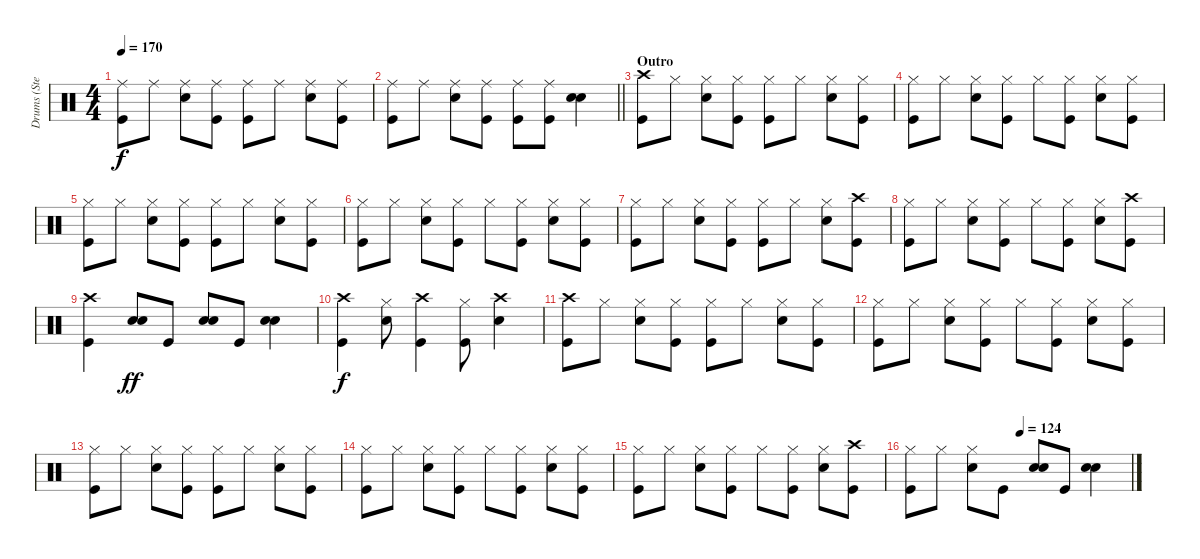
\track ("Drums (Steven)" "Drums (Ste") {instrument percussion}
\staff {score}
\articulation defaults
\ts (4 4)
\tempo 170
\clef neutral
\ks c
("Ride (middle)" "Kick (hit)").8{dy f} "Ride (middle)".8 ("Ride (middle)" "Snare (hit) 2").8 ("Ride (middle)" "Kick (hit)").8 ("Ride (middle)" "Kick (hit)").8 "Ride (middle)".8 ("Ride (middle)" "Snare (hit) 2").8 ("Ride (middle)" "Kick (hit)").8 |
\barLineRight lightlight
("Ride (middle)" "Kick (hit)").8 "Ride (middle)".8 ("Ride (middle)" "Snare (hit) 2").8 ("Ride (middle)" "Kick (hit)").8 ("Ride (middle)" "Kick (hit)").8 ("Ride (middle)" "Kick (hit)").8 ("Snare (hit) 2" "Snare (hit) 2").4 |
\section ("" "Outro")
("Crash high (hit)" "Kick (hit)").8 "Hi-Hat (closed)".8 ("Hi-Hat (closed)" "Snare (hit) 2").8 ("Hi-Hat (closed)" "Kick (hit)").8 ("Hi-Hat (closed)" "Kick (hit)").8 "Hi-Hat (closed)".8 ("Hi-Hat (closed)" "Snare (hit) 2").8 ("Hi-Hat (closed)" "Kick (hit)").8 |
("Hi-Hat (closed)" "Kick (hit)").8 "Hi-Hat (closed)".8 ("Hi-Hat (closed)" "Snare (hit) 2").8 ("Hi-Hat (closed)" "Kick (hit)").8 "Hi-Hat (closed)".8 ("Hi-Hat (closed)" "Kick (hit)").8 ("Hi-Hat (closed)" "Snare (hit) 2").8 ("Hi-Hat (closed)" "Kick (hit)").8 |
("Hi-Hat (closed)" "Kick (hit)").8 "Hi-Hat (closed)".8 ("Hi-Hat (closed)" "Snare (hit) 2").8 ("Hi-Hat (closed)" "Kick (hit)").8 ("Hi-Hat (closed)" "Kick (hit)").8 "Hi-Hat (closed)".8 ("Hi-Hat (closed)" "Snare (hit) 2").8 ("Hi-Hat (closed)" "Kick (hit)").8 |
("Hi-Hat (closed)" "Kick (hit)").8 "Hi-Hat (closed)".8 ("Hi-Hat (closed)" "Snare (hit) 2").8 ("Hi-Hat (closed)" "Kick (hit)").8 "Hi-Hat (closed)".8 ("Hi-Hat (closed)" "Kick (hit)").8 ("Hi-Hat (closed)" "Snare (hit) 2").8 ("Hi-Hat (closed)" "Kick (hit)").8 |
("Hi-Hat (closed)" "Kick (hit)").8 "Hi-Hat (closed)".8 ("Hi-Hat (closed)" "Snare (hit) 2").8 ("Hi-Hat (closed)" "Kick (hit)").8 ("Hi-Hat (closed)" "Kick (hit)").8 "Hi-Hat (closed)".8 ("Hi-Hat (closed)" "Snare (hit) 2").8 ("Crash high (hit)" "Kick (hit)").8 |
("Hi-Hat (closed)" "Kick (hit)").8 "Hi-Hat (closed)".8 ("Hi-Hat (closed)" "Snare (hit) 2").8 ("Hi-Hat (closed)" "Kick (hit)").8 "Hi-Hat (closed)".8 ("Hi-Hat (closed)" "Kick (hit)").8 ("Hi-Hat (closed)" "Snare (hit) 2").8 ("Crash high (hit)" "Kick (hit)").8 |
("Crash high (hit)" "Kick (hit)").4 ("Snare (hit) 2" "Snare (hit) 2").8{dy ff} "Kick (hit)".8 ("Snare (hit) 2" "Snare (hit) 2").8 "Kick (hit)".8 ("Snare (hit) 2" "Snare (hit) 2").4 |
("Crash high (hit)" "Kick (hit)").4{dy f} ("Hi-Hat (closed)" "Snare (hit) 2").8 ("Crash high (hit)" "Kick (hit)").4 ("Hi-Hat (closed)" "Kick (hit)").8 ("Crash high (hit)" "Snare (hit) 2").4 |
("Crash high (hit)" "Kick (hit)").8 "Hi-Hat (closed)".8 ("Hi-Hat (closed)" "Snare (hit) 2").8 ("Hi-Hat (closed)" "Kick (hit)").8 ("Hi-Hat (closed)" "Kick (hit)").8 "Hi-Hat (closed)".8 ("Hi-Hat (closed)" "Snare (hit) 2").8 ("Hi-Hat (closed)" "Kick (hit)").8 |
("Hi-Hat (closed)" "Kick (hit)").8 "Hi-Hat (closed)".8 ("Hi-Hat (closed)" "Snare (hit) 2").8 ("Hi-Hat (closed)" "Kick (hit)").8 "Hi-Hat (closed)".8 ("Hi-Hat (closed)" "Kick (hit)").8 ("Hi-Hat (closed)" "Snare (hit) 2").8 ("Hi-Hat (closed)" "Kick (hit)").8 |
("Hi-Hat (closed)" "Kick (hit)").8 "Hi-Hat (closed)".8 ("Hi-Hat (closed)" "Snare (hit) 2").8 ("Hi-Hat (closed)" "Kick (hit)").8 ("Hi-Hat (closed)" "Kick (hit)").8 "Hi-Hat (closed)".8 ("Hi-Hat (closed)" "Snare (hit) 2").8 ("Hi-Hat (closed)" "Kick (hit)").8 |
("Hi-Hat (closed)" "Kick (hit)").8 "Hi-Hat (closed)".8 ("Hi-Hat (closed)" "Snare (hit) 2").8 ("Hi-Hat (closed)" "Kick (hit)").8 "Hi-Hat (closed)".8 ("Hi-Hat (closed)" "Kick (hit)").8 ("Hi-Hat (closed)" "Snare (hit) 2").8 ("Hi-Hat (closed)" "Kick (hit)").8 |
("Hi-Hat (closed)" "Kick (hit)").8 "Hi-Hat (closed)".8 ("Hi-Hat (closed)" "Snare (hit) 2").8 ("Hi-Hat (closed)" "Kick (hit)").8 "Hi-Hat (closed)".8 ("Hi-Hat (closed)" "Kick (hit)").8 ("Hi-Hat (closed)" "Snare (hit) 2").8 ("Crash high (hit)" "Kick (hit)").8 |
\tempo (124 0.5)
("Hi-Hat (closed)" "Kick (hit)").8 "Hi-Hat (closed)".8 ("Hi-Hat (closed)" "Snare (hit) 2").8 "Kick (hit)".8 ("Snare (hit) 2" "Snare (hit) 2").8 "Kick (hit)".8 ("Snare (hit) 2" "Snare (hit) 2").4
